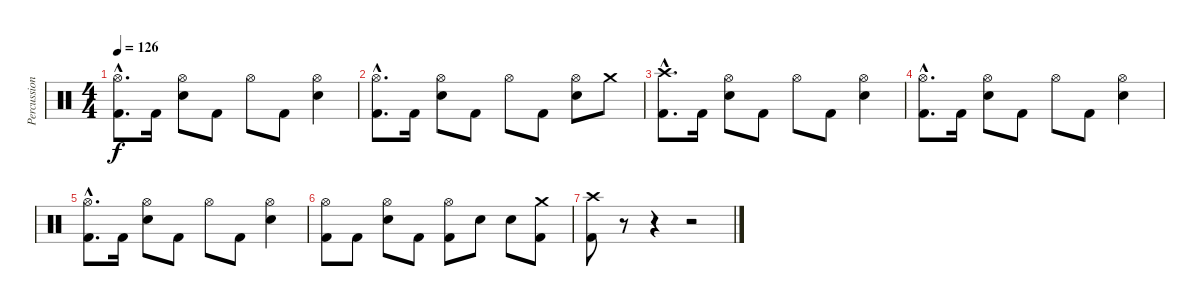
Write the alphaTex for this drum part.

\track ("Percussion" "Percussion") {instrument percussion}
\staff {score}
\articulation defaults
\ts (4 4)
\tempo 126
\clef neutral
\ks c
("Hi-Hat (open)"{hac} "Kick (hit) 2"{hac}).8{d dy f} "Kick (hit) 2".16 ("Hi-Hat (open)" "Snare (hit) 2").8 "Kick (hit) 2".8 "Hi-Hat (open)".8 "Kick (hit) 2".8 ("Hi-Hat (open)" "Snare (hit) 2").4 |
("Hi-Hat (open)"{hac} "Kick (hit) 2"{hac}).8{d} "Kick (hit) 2".16 ("Hi-Hat (open)" "Snare (hit) 2").8 "Kick (hit) 2".8 "Hi-Hat (open)".8 "Kick (hit) 2".8 ("Hi-Hat (open)" "Snare (hit) 2").8 "Crash medium (hit)".8 |
("Crash high (hit)"{hac} "Kick (hit) 2"{hac}).8{d} "Kick (hit) 2".16 ("Hi-Hat (open)" "Snare (hit) 2").8 "Kick (hit) 2".8 "Hi-Hat (open)".8 "Kick (hit) 2".8 ("Hi-Hat (open)" "Snare (hit) 2").4 |
("Hi-Hat (open)"{hac} "Kick (hit) 2"{hac}).8{d} "Kick (hit) 2".16 ("Hi-Hat (open)" "Snare (hit) 2").8 "Kick (hit) 2".8 "Hi-Hat (open)".8 "Kick (hit) 2".8 ("Hi-Hat (open)" "Snare (hit) 2").4 |
("Hi-Hat (open)"{hac} "Kick (hit) 2"{hac}).8{d} "Kick (hit) 2".16 ("Hi-Hat (open)" "Snare (hit) 2").8 "Kick (hit) 2".8 "Hi-Hat (open)".8 "Kick (hit) 2".8 ("Hi-Hat (open)" "Snare (hit) 2").4 |
("Hi-Hat (open)" "Kick (hit) 2").8 "Kick (hit) 2".8 ("Hi-Hat (open)" "Snare (hit) 2").8 "Kick (hit) 2".8 ("Hi-Hat (open)" "Kick (hit) 2").8 "Snare (hit) 2".8 "Snare (hit) 2".8 ("Crash medium (hit)" "Kick (hit) 2").8 |
("Crash high (hit)" "Kick (hit) 2").8 r.8 r.4 r.2
